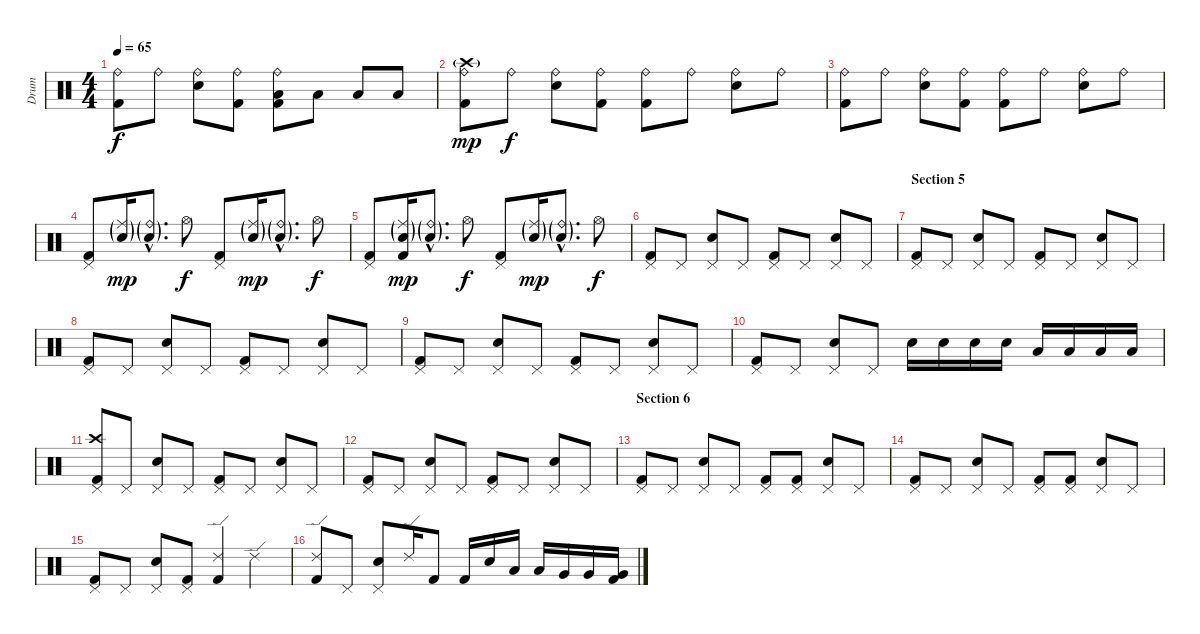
\track ("Drum" "Drum") {instrument percussion}
\staff {score}
\articulation defaults
\ts (4 4)
\tempo 65
\clef neutral
\ks c
("Ride (bell)" "Kick (hit) 2").8{dy f} "Ride (bell)".8 ("Ride (bell)" "Snare (hit) 2").8 ("Ride (bell)" "Kick (hit) 2").8 ("Ride (bell)" "Low Tom (hit)" "Kick (hit) 2").8 "Low Tom (hit)".8 "Low Floor Tom (hit)".8 "Low Floor Tom (hit)".8 |
("Crash high (hit)"{g} "Ride (bell)" "Kick (hit) 2").8{dy mp} "Ride (bell)".8{dy f} ("Ride (bell)" "Snare (hit) 2").8 ("Ride (bell)" "Kick (hit) 2").8 ("Ride (bell)" "Kick (hit) 2").8 "Ride (bell)".8 ("Ride (bell)" "Snare (hit) 2").8 "Ride (bell)".8 |
("Ride (bell)" "Kick (hit) 2").8 "Ride (bell)".8 ("Ride (bell)" "Snare (hit) 2").8 ("Ride (bell)" "Kick (hit) 2").8 ("Ride (bell)" "Kick (hit) 2").8 "Ride (bell)".8 ("Ride (bell)" "Snare (hit) 2").8 "Ride (bell)".8 |
("Pedal Hi-Hat (hit)" "Kick (hit) 2").8 ("Ride (middle)"{g} "Snare (hit) 2"{g}).16{dy mp} ("Ride (bell)"{g hac} "Snare (hit) 2"{g hac}).8{d} "Hi-Hat (open)".8{dy f} ("Pedal Hi-Hat (hit)" "Kick (hit) 2").8 ("Ride (middle)"{g} "Snare (hit) 2"{g}).16{dy mp} ("Ride (bell)"{g hac} "Snare (hit) 2"{g hac}).8{d} "Hi-Hat (open)".8{dy f} |
("Pedal Hi-Hat (hit)" "Kick (hit) 2").8 ("Ride (middle)"{g} "Snare (hit) 2"{g} "Kick (hit) 2").16{dy mp} ("Ride (bell)"{g hac} "Snare (hit) 2"{g hac}).8{d} "Hi-Hat (open)".8{dy f} ("Pedal Hi-Hat (hit)" "Kick (hit) 2").8 ("Ride (middle)"{g} "Snare (hit) 2"{g}).16{dy mp} ("Ride (bell)"{g hac} "Snare (hit) 2"{g hac}).8{d} "Hi-Hat (open)".8{dy f} |
("Pedal Hi-Hat (hit)" "Kick (hit) 2").8 "Pedal Hi-Hat (hit)".8 ("Pedal Hi-Hat (hit)" "Snare (hit) 2").8 "Pedal Hi-Hat (hit)".8 ("Pedal Hi-Hat (hit)" "Kick (hit) 2").8 "Pedal Hi-Hat (hit)".8 ("Pedal Hi-Hat (hit)" "Snare (hit) 2").8 "Pedal Hi-Hat (hit)".8 |
\section ("" "Section 5")
("Pedal Hi-Hat (hit)" "Kick (hit) 2").8 "Pedal Hi-Hat (hit)".8 ("Pedal Hi-Hat (hit)" "Snare (hit) 2").8 "Pedal Hi-Hat (hit)".8 ("Pedal Hi-Hat (hit)" "Kick (hit) 2").8 "Pedal Hi-Hat (hit)".8 ("Pedal Hi-Hat (hit)" "Snare (hit) 2").8 "Pedal Hi-Hat (hit)".8 |
("Pedal Hi-Hat (hit)" "Kick (hit) 2").8 "Pedal Hi-Hat (hit)".8 ("Pedal Hi-Hat (hit)" "Snare (hit) 2").8 "Pedal Hi-Hat (hit)".8 ("Pedal Hi-Hat (hit)" "Kick (hit) 2").8 "Pedal Hi-Hat (hit)".8 ("Pedal Hi-Hat (hit)" "Snare (hit) 2").8 "Pedal Hi-Hat (hit)".8 |
("Pedal Hi-Hat (hit)" "Kick (hit) 2").8 "Pedal Hi-Hat (hit)".8 ("Pedal Hi-Hat (hit)" "Snare (hit) 2").8 "Pedal Hi-Hat (hit)".8 ("Pedal Hi-Hat (hit)" "Kick (hit) 2").8 "Pedal Hi-Hat (hit)".8 ("Pedal Hi-Hat (hit)" "Snare (hit) 2").8 "Pedal Hi-Hat (hit)".8 |
("Pedal Hi-Hat (hit)" "Kick (hit) 2").8 "Pedal Hi-Hat (hit)".8 ("Pedal Hi-Hat (hit)" "Snare (hit) 2").8 "Pedal Hi-Hat (hit)".8 "Snare (hit) 2".16 "Snare (hit) 2".16 "Snare (hit) 2".16 "Snare (hit) 2".16 "Low Tom (hit)".16 "Low Tom (hit)".16 "Low Tom (hit)".16 "Low Tom (hit)".16 |
("Crash high (hit)" "Pedal Hi-Hat (hit)" "Kick (hit) 2").8 "Pedal Hi-Hat (hit)".8 ("Pedal Hi-Hat (hit)" "Snare (hit) 2").8 "Pedal Hi-Hat (hit)".8 ("Pedal Hi-Hat (hit)" "Kick (hit) 2").8 "Pedal Hi-Hat (hit)".8 ("Pedal Hi-Hat (hit)" "Snare (hit) 2").8 "Pedal Hi-Hat (hit)".8 |
("Pedal Hi-Hat (hit)" "Kick (hit) 2").8 "Pedal Hi-Hat (hit)".8 ("Pedal Hi-Hat (hit)" "Snare (hit) 2").8 "Pedal Hi-Hat (hit)".8 ("Pedal Hi-Hat (hit)" "Kick (hit) 2").8 "Pedal Hi-Hat (hit)".8 ("Pedal Hi-Hat (hit)" "Snare (hit) 2").8 "Pedal Hi-Hat (hit)".8 |
\section ("" "Section 6")
("Pedal Hi-Hat (hit)" "Kick (hit) 2").8 "Pedal Hi-Hat (hit)".8 ("Pedal Hi-Hat (hit)" "Snare (hit) 2").8 "Pedal Hi-Hat (hit)".8 ("Pedal Hi-Hat (hit)" "Kick (hit) 2").8 ("Pedal Hi-Hat (hit)" "Kick (hit) 2").8 ("Pedal Hi-Hat (hit)" "Snare (hit) 2").8 "Pedal Hi-Hat (hit)".8 |
("Pedal Hi-Hat (hit)" "Kick (hit) 2").8 "Pedal Hi-Hat (hit)".8 ("Pedal Hi-Hat (hit)" "Snare (hit) 2").8 "Pedal Hi-Hat (hit)".8 ("Pedal Hi-Hat (hit)" "Kick (hit) 2").8 ("Pedal Hi-Hat (hit)" "Kick (hit) 2").8 ("Pedal Hi-Hat (hit)" "Snare (hit) 2").8 "Pedal Hi-Hat (hit)".8 |
("Pedal Hi-Hat (hit)" "Kick (hit) 2").8 "Pedal Hi-Hat (hit)".8 ("Pedal Hi-Hat (hit)" "Snare (hit) 2").8 ("Pedal Hi-Hat (hit)" "Kick (hit) 2").8 ("Ride (edge) 2" "Kick (hit) 2").4 "Ride (edge) 2".4 |
("Ride (edge) 2" "Kick (hit) 2").8 "Pedal Hi-Hat (hit)".8 ("Pedal Hi-Hat (hit)" "Snare (hit) 2").8 "Ride (edge) 2".16 "Kick (hit) 2".8 "Kick (hit) 2".16 "Snare (hit) 2".16 "Low Tom (hit)".16 "Low Tom (hit)".16 "Very Low Tom (hit)".16 "Very Low Tom (hit)".16 ("Very Low Tom (hit)" "Kick (hit) 2").16
